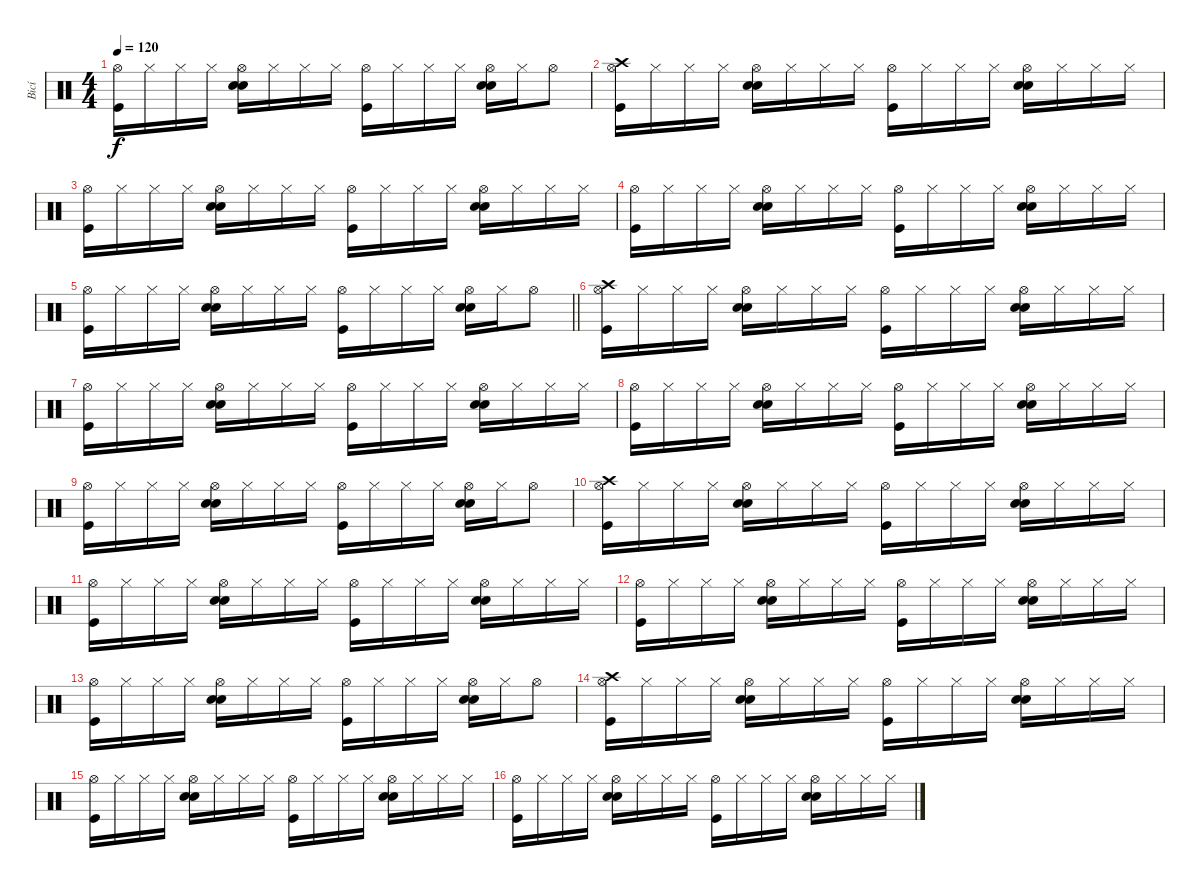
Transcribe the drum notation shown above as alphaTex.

\track ("Bicí" "Bicí") {instrument percussion}
\staff {score}
\articulation defaults
\ts (4 4)
\tempo 120
\clef neutral
\ks c
("Hi-Hat (open)" "Kick (hit)").16{dy f} "Hi-Hat (closed)".16 "Hi-Hat (closed)".16 "Hi-Hat (closed)".16 ("Hi-Hat (open)" "Hand Clap (hit)" "Electric Snare (hit)").16 "Hi-Hat (closed)".16 "Hi-Hat (closed)".16 "Hi-Hat (closed)".16 ("Hi-Hat (open)" "Kick (hit)").16 "Hi-Hat (closed)".16 "Hi-Hat (closed)".16 "Hi-Hat (closed)".16 ("Hi-Hat (open)" "Hand Clap (hit)" "Electric Snare (hit)").16 "Hi-Hat (closed)".16 "Hi-Hat (open)".8 |
("Crash high (hit)" "Hi-Hat (open)" "Kick (hit)").16 "Hi-Hat (closed)".16 "Hi-Hat (closed)".16 "Hi-Hat (closed)".16 ("Hi-Hat (open)" "Hand Clap (hit)" "Electric Snare (hit)").16 "Hi-Hat (closed)".16 "Hi-Hat (closed)".16 "Hi-Hat (closed)".16 ("Hi-Hat (open)" "Kick (hit)").16 "Hi-Hat (closed)".16 "Hi-Hat (closed)".16 "Hi-Hat (closed)".16 ("Hi-Hat (open)" "Hand Clap (hit)" "Electric Snare (hit)").16 "Hi-Hat (closed)".16 "Hi-Hat (closed)".16 "Hi-Hat (closed)".16 |
("Hi-Hat (open)" "Kick (hit)").16 "Hi-Hat (closed)".16 "Hi-Hat (closed)".16 "Hi-Hat (closed)".16 ("Hi-Hat (open)" "Hand Clap (hit)" "Electric Snare (hit)").16 "Hi-Hat (closed)".16 "Hi-Hat (closed)".16 "Hi-Hat (closed)".16 ("Hi-Hat (open)" "Kick (hit)").16 "Hi-Hat (closed)".16 "Hi-Hat (closed)".16 "Hi-Hat (closed)".16 ("Hi-Hat (open)" "Hand Clap (hit)" "Electric Snare (hit)").16 "Hi-Hat (closed)".16 "Hi-Hat (closed)".16 "Hi-Hat (closed)".16 |
("Hi-Hat (open)" "Kick (hit)").16 "Hi-Hat (closed)".16 "Hi-Hat (closed)".16 "Hi-Hat (closed)".16 ("Hi-Hat (open)" "Hand Clap (hit)" "Electric Snare (hit)").16 "Hi-Hat (closed)".16 "Hi-Hat (closed)".16 "Hi-Hat (closed)".16 ("Hi-Hat (open)" "Kick (hit)").16 "Hi-Hat (closed)".16 "Hi-Hat (closed)".16 "Hi-Hat (closed)".16 ("Hi-Hat (open)" "Hand Clap (hit)" "Electric Snare (hit)").16 "Hi-Hat (closed)".16 "Hi-Hat (closed)".16 "Hi-Hat (closed)".16 |
\barLineRight lightlight
("Hi-Hat (open)" "Kick (hit)").16 "Hi-Hat (closed)".16 "Hi-Hat (closed)".16 "Hi-Hat (closed)".16 ("Hi-Hat (open)" "Hand Clap (hit)" "Electric Snare (hit)").16 "Hi-Hat (closed)".16 "Hi-Hat (closed)".16 "Hi-Hat (closed)".16 ("Hi-Hat (open)" "Kick (hit)").16 "Hi-Hat (closed)".16 "Hi-Hat (closed)".16 "Hi-Hat (closed)".16 ("Hi-Hat (open)" "Hand Clap (hit)" "Electric Snare (hit)").16 "Hi-Hat (closed)".16 "Hi-Hat (open)".8 |
\section ("" "")
("Crash high (hit)" "Hi-Hat (open)" "Kick (hit)").16 "Hi-Hat (closed)".16 "Hi-Hat (closed)".16 "Hi-Hat (closed)".16 ("Hi-Hat (open)" "Hand Clap (hit)" "Electric Snare (hit)").16 "Hi-Hat (closed)".16 "Hi-Hat (closed)".16 "Hi-Hat (closed)".16 ("Hi-Hat (open)" "Kick (hit)").16 "Hi-Hat (closed)".16 "Hi-Hat (closed)".16 "Hi-Hat (closed)".16 ("Hi-Hat (open)" "Hand Clap (hit)" "Electric Snare (hit)").16 "Hi-Hat (closed)".16 "Hi-Hat (closed)".16 "Hi-Hat (closed)".16 |
("Hi-Hat (open)" "Kick (hit)").16 "Hi-Hat (closed)".16 "Hi-Hat (closed)".16 "Hi-Hat (closed)".16 ("Hi-Hat (open)" "Hand Clap (hit)" "Electric Snare (hit)").16 "Hi-Hat (closed)".16 "Hi-Hat (closed)".16 "Hi-Hat (closed)".16 ("Hi-Hat (open)" "Kick (hit)").16 "Hi-Hat (closed)".16 "Hi-Hat (closed)".16 "Hi-Hat (closed)".16 ("Hi-Hat (open)" "Hand Clap (hit)" "Electric Snare (hit)").16 "Hi-Hat (closed)".16 "Hi-Hat (closed)".16 "Hi-Hat (closed)".16 |
("Hi-Hat (open)" "Kick (hit)").16 "Hi-Hat (closed)".16 "Hi-Hat (closed)".16 "Hi-Hat (closed)".16 ("Hi-Hat (open)" "Hand Clap (hit)" "Electric Snare (hit)").16 "Hi-Hat (closed)".16 "Hi-Hat (closed)".16 "Hi-Hat (closed)".16 ("Hi-Hat (open)" "Kick (hit)").16 "Hi-Hat (closed)".16 "Hi-Hat (closed)".16 "Hi-Hat (closed)".16 ("Hi-Hat (open)" "Hand Clap (hit)" "Electric Snare (hit)").16 "Hi-Hat (closed)".16 "Hi-Hat (closed)".16 "Hi-Hat (closed)".16 |
("Hi-Hat (open)" "Kick (hit)").16 "Hi-Hat (closed)".16 "Hi-Hat (closed)".16 "Hi-Hat (closed)".16 ("Hi-Hat (open)" "Hand Clap (hit)" "Electric Snare (hit)").16 "Hi-Hat (closed)".16 "Hi-Hat (closed)".16 "Hi-Hat (closed)".16 ("Hi-Hat (open)" "Kick (hit)").16 "Hi-Hat (closed)".16 "Hi-Hat (closed)".16 "Hi-Hat (closed)".16 ("Hi-Hat (open)" "Hand Clap (hit)" "Electric Snare (hit)").16 "Hi-Hat (closed)".16 "Hi-Hat (open)".8 |
("Crash high (hit)" "Hi-Hat (open)" "Kick (hit)").16 "Hi-Hat (closed)".16 "Hi-Hat (closed)".16 "Hi-Hat (closed)".16 ("Hi-Hat (open)" "Hand Clap (hit)" "Electric Snare (hit)").16 "Hi-Hat (closed)".16 "Hi-Hat (closed)".16 "Hi-Hat (closed)".16 ("Hi-Hat (open)" "Kick (hit)").16 "Hi-Hat (closed)".16 "Hi-Hat (closed)".16 "Hi-Hat (closed)".16 ("Hi-Hat (open)" "Hand Clap (hit)" "Electric Snare (hit)").16 "Hi-Hat (closed)".16 "Hi-Hat (closed)".16 "Hi-Hat (closed)".16 |
("Hi-Hat (open)" "Kick (hit)").16 "Hi-Hat (closed)".16 "Hi-Hat (closed)".16 "Hi-Hat (closed)".16 ("Hi-Hat (open)" "Hand Clap (hit)" "Electric Snare (hit)").16 "Hi-Hat (closed)".16 "Hi-Hat (closed)".16 "Hi-Hat (closed)".16 ("Hi-Hat (open)" "Kick (hit)").16 "Hi-Hat (closed)".16 "Hi-Hat (closed)".16 "Hi-Hat (closed)".16 ("Hi-Hat (open)" "Hand Clap (hit)" "Electric Snare (hit)").16 "Hi-Hat (closed)".16 "Hi-Hat (closed)".16 "Hi-Hat (closed)".16 |
("Hi-Hat (open)" "Kick (hit)").16 "Hi-Hat (closed)".16 "Hi-Hat (closed)".16 "Hi-Hat (closed)".16 ("Hi-Hat (open)" "Hand Clap (hit)" "Electric Snare (hit)").16 "Hi-Hat (closed)".16 "Hi-Hat (closed)".16 "Hi-Hat (closed)".16 ("Hi-Hat (open)" "Kick (hit)").16 "Hi-Hat (closed)".16 "Hi-Hat (closed)".16 "Hi-Hat (closed)".16 ("Hi-Hat (open)" "Hand Clap (hit)" "Electric Snare (hit)").16 "Hi-Hat (closed)".16 "Hi-Hat (closed)".16 "Hi-Hat (closed)".16 |
("Hi-Hat (open)" "Kick (hit)").16 "Hi-Hat (closed)".16 "Hi-Hat (closed)".16 "Hi-Hat (closed)".16 ("Hi-Hat (open)" "Hand Clap (hit)" "Electric Snare (hit)").16 "Hi-Hat (closed)".16 "Hi-Hat (closed)".16 "Hi-Hat (closed)".16 ("Hi-Hat (open)" "Kick (hit)").16 "Hi-Hat (closed)".16 "Hi-Hat (closed)".16 "Hi-Hat (closed)".16 ("Hi-Hat (open)" "Hand Clap (hit)" "Electric Snare (hit)").16 "Hi-Hat (closed)".16 "Hi-Hat (open)".8 |
("Crash high (hit)" "Hi-Hat (open)" "Kick (hit)").16 "Hi-Hat (closed)".16 "Hi-Hat (closed)".16 "Hi-Hat (closed)".16 ("Hi-Hat (open)" "Hand Clap (hit)" "Electric Snare (hit)").16 "Hi-Hat (closed)".16 "Hi-Hat (closed)".16 "Hi-Hat (closed)".16 ("Hi-Hat (open)" "Kick (hit)").16 "Hi-Hat (closed)".16 "Hi-Hat (closed)".16 "Hi-Hat (closed)".16 ("Hi-Hat (open)" "Hand Clap (hit)" "Electric Snare (hit)").16 "Hi-Hat (closed)".16 "Hi-Hat (closed)".16 "Hi-Hat (closed)".16 |
("Hi-Hat (open)" "Kick (hit)").16 "Hi-Hat (closed)".16 "Hi-Hat (closed)".16 "Hi-Hat (closed)".16 ("Hi-Hat (open)" "Hand Clap (hit)" "Electric Snare (hit)").16 "Hi-Hat (closed)".16 "Hi-Hat (closed)".16 "Hi-Hat (closed)".16 ("Hi-Hat (open)" "Kick (hit)").16 "Hi-Hat (closed)".16 "Hi-Hat (closed)".16 "Hi-Hat (closed)".16 ("Hi-Hat (open)" "Hand Clap (hit)" "Electric Snare (hit)").16 "Hi-Hat (closed)".16 "Hi-Hat (closed)".16 "Hi-Hat (closed)".16 |
("Hi-Hat (open)" "Kick (hit)").16 "Hi-Hat (closed)".16 "Hi-Hat (closed)".16 "Hi-Hat (closed)".16 ("Hi-Hat (open)" "Hand Clap (hit)" "Electric Snare (hit)").16 "Hi-Hat (closed)".16 "Hi-Hat (closed)".16 "Hi-Hat (closed)".16 ("Hi-Hat (open)" "Kick (hit)").16 "Hi-Hat (closed)".16 "Hi-Hat (closed)".16 "Hi-Hat (closed)".16 ("Hi-Hat (open)" "Hand Clap (hit)" "Electric Snare (hit)").16 "Hi-Hat (closed)".16 "Hi-Hat (closed)".16 "Hi-Hat (closed)".16
